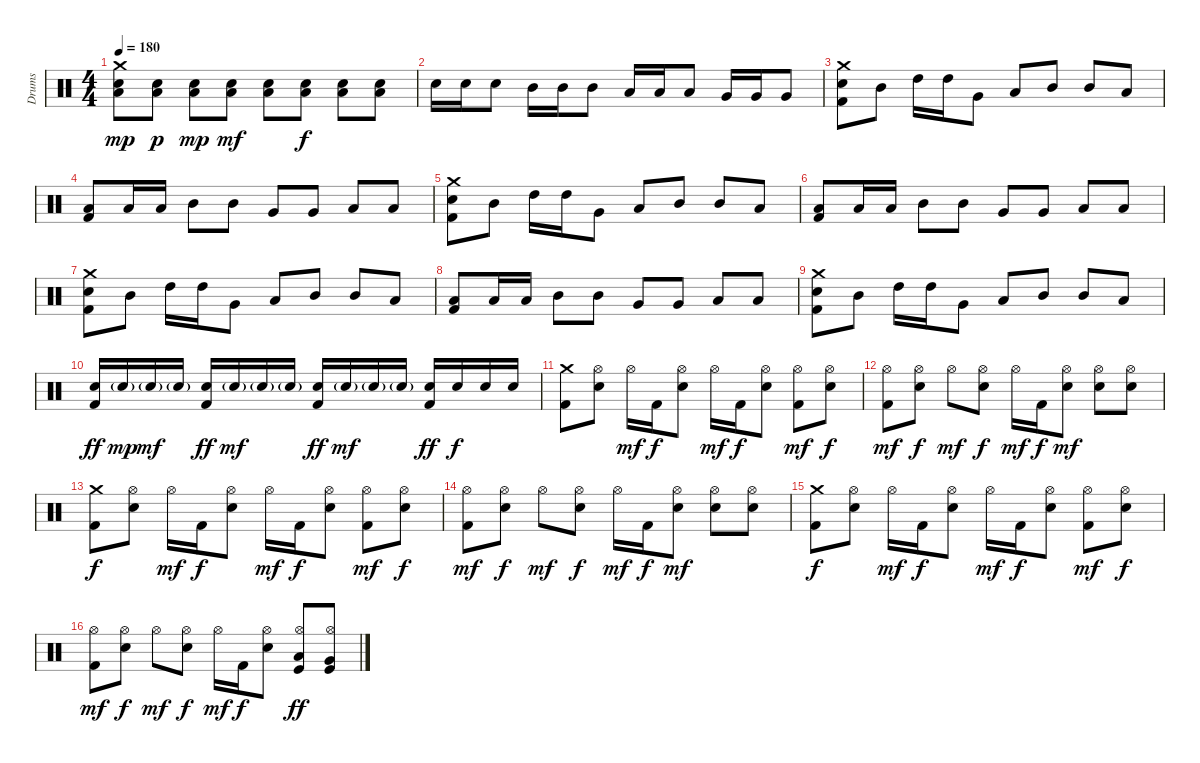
\track ("Drums" "Drums") {instrument percussion}
\staff {score}
\articulation defaults
\ts (4 4)
\tempo 180
\clef neutral
\ks c
("Crash medium (hit)" "Low Floor Tom (hit)" "Electric Snare (hit)").8{dy mp} ("Low Floor Tom (hit)" "Electric Snare (hit)").8{dy p} ("Low Floor Tom (hit)" "Electric Snare (hit)").8{dy mp} ("Low Floor Tom (hit)" "Electric Snare (hit)").8{dy mf} ("Low Floor Tom (hit)" "Electric Snare (hit)").8 ("Low Floor Tom (hit)" "Electric Snare (hit)").8{dy f} ("Low Floor Tom (hit)" "Electric Snare (hit)").8 ("Low Floor Tom (hit)" "Electric Snare (hit)").8 |
"Electric Snare (hit)".16 "Electric Snare (hit)".16 "Electric Snare (hit)".8 "Mid Tom (hit)".16 "Mid Tom (hit)".16 "Mid Tom (hit)".8 "Low Tom (hit)".16 "Low Tom (hit)".16 "Low Tom (hit)".8 "Very Low Tom (hit)".16 "Very Low Tom (hit)".16 "Very Low Tom (hit)".8 |
("Crash medium (hit)" "Electric Snare (hit)" "Kick (hit) 2").8 "Mid Tom (hit)".8 "High Tom (hit)".16 "High Tom (hit)".16 "Very Low Tom (hit)".8 "Low Tom (hit)".8 "Mid Tom (hit)".8 "Mid Tom (hit)".8 "Low Tom (hit)".8 |
("Low Tom (hit)" "Kick (hit) 2").8 "Low Tom (hit)".16 "Low Tom (hit)".16 "Mid Tom (hit)".8 "Mid Tom (hit)".8 "Very Low Tom (hit)".8 "Very Low Tom (hit)".8 "Low Tom (hit)".8 "Low Tom (hit)".8 |
("Crash medium (hit)" "Electric Snare (hit)" "Kick (hit) 2").8 "Mid Tom (hit)".8 "High Tom (hit)".16 "High Tom (hit)".16 "Very Low Tom (hit)".8 "Low Tom (hit)".8 "Mid Tom (hit)".8 "Mid Tom (hit)".8 "Low Tom (hit)".8 |
("Low Tom (hit)" "Kick (hit) 2").8 "Low Tom (hit)".16 "Low Tom (hit)".16 "Mid Tom (hit)".8 "Mid Tom (hit)".8 "Very Low Tom (hit)".8 "Very Low Tom (hit)".8 "Low Tom (hit)".8 "Low Tom (hit)".8 |
("Crash medium (hit)" "Electric Snare (hit)" "Kick (hit) 2").8 "Mid Tom (hit)".8 "High Tom (hit)".16 "High Tom (hit)".16 "Very Low Tom (hit)".8 "Low Tom (hit)".8 "Mid Tom (hit)".8 "Mid Tom (hit)".8 "Low Tom (hit)".8 |
("Low Tom (hit)" "Kick (hit) 2").8 "Low Tom (hit)".16 "Low Tom (hit)".16 "Mid Tom (hit)".8 "Mid Tom (hit)".8 "Very Low Tom (hit)".8 "Very Low Tom (hit)".8 "Low Tom (hit)".8 "Low Tom (hit)".8 |
("Crash medium (hit)" "Electric Snare (hit)" "Kick (hit) 2").8 "Mid Tom (hit)".8 "High Tom (hit)".16 "High Tom (hit)".16 "Very Low Tom (hit)".8 "Low Tom (hit)".8 "Mid Tom (hit)".8 "Mid Tom (hit)".8 "Low Tom (hit)".8 |
("Electric Snare (hit)" "Kick (hit) 2").16{dy ff} "Electric Snare (hit)"{g}.16{dy mp} "Electric Snare (hit)"{g}.16{dy mf} "Electric Snare (hit)"{g}.16 ("Electric Snare (hit)" "Kick (hit) 2").16{dy ff} "Electric Snare (hit)"{g}.16{dy mf} "Electric Snare (hit)"{g}.16 "Electric Snare (hit)"{g}.16 ("Electric Snare (hit)" "Kick (hit) 2").16{dy ff} "Electric Snare (hit)"{g}.16{dy mf} "Electric Snare (hit)"{g}.16 "Electric Snare (hit)"{g}.16 ("Electric Snare (hit)" "Kick (hit) 2").16{dy ff} "Electric Snare (hit)".16{dy f} "Electric Snare (hit)".16 "Electric Snare (hit)".16 |
("Crash medium (hit)" "Kick (hit) 2").8 ("Hi-Hat (open)" "Electric Snare (hit)").8 "Hi-Hat (open)".16{dy mf} "Kick (hit) 2".16{dy f} ("Hi-Hat (open)" "Electric Snare (hit)").8 "Hi-Hat (open)".16{dy mf} "Kick (hit) 2".16{dy f} ("Hi-Hat (open)" "Electric Snare (hit)").8 ("Hi-Hat (open)" "Kick (hit) 2").8{dy mf} ("Hi-Hat (open)" "Electric Snare (hit)").8{dy f} |
("Hi-Hat (open)" "Kick (hit) 2").8{dy mf} ("Hi-Hat (open)" "Electric Snare (hit)").8{dy f} "Hi-Hat (open)".8{dy mf} ("Hi-Hat (open)" "Electric Snare (hit)").8{dy f} "Hi-Hat (open)".16{dy mf} "Kick (hit) 2".16{dy f} ("Hi-Hat (open)" "Electric Snare (hit)").8{dy mf} ("Hi-Hat (open)" "Electric Snare (hit)").8 ("Hi-Hat (open)" "Electric Snare (hit)").8 |
("Crash medium (hit)" "Kick (hit) 2").8{dy f} ("Hi-Hat (open)" "Electric Snare (hit)").8 "Hi-Hat (open)".16{dy mf} "Kick (hit) 2".16{dy f} ("Hi-Hat (open)" "Electric Snare (hit)").8 "Hi-Hat (open)".16{dy mf} "Kick (hit) 2".16{dy f} ("Hi-Hat (open)" "Electric Snare (hit)").8 ("Hi-Hat (open)" "Kick (hit) 2").8{dy mf} ("Hi-Hat (open)" "Electric Snare (hit)").8{dy f} |
("Hi-Hat (open)" "Kick (hit) 2").8{dy mf} ("Hi-Hat (open)" "Electric Snare (hit)").8{dy f} "Hi-Hat (open)".8{dy mf} ("Hi-Hat (open)" "Electric Snare (hit)").8{dy f} "Hi-Hat (open)".16{dy mf} "Kick (hit) 2".16{dy f} ("Hi-Hat (open)" "Electric Snare (hit)").8{dy mf} ("Hi-Hat (open)" "Electric Snare (hit)").8 ("Hi-Hat (open)" "Electric Snare (hit)").8 |
("Crash medium (hit)" "Kick (hit) 2").8{dy f} ("Hi-Hat (open)" "Electric Snare (hit)").8 "Hi-Hat (open)".16{dy mf} "Kick (hit) 2".16{dy f} ("Hi-Hat (open)" "Electric Snare (hit)").8 "Hi-Hat (open)".16{dy mf} "Kick (hit) 2".16{dy f} ("Hi-Hat (open)" "Electric Snare (hit)").8 ("Hi-Hat (open)" "Kick (hit) 2").8{dy mf} ("Hi-Hat (open)" "Electric Snare (hit)").8{dy f} |
("Hi-Hat (open)" "Kick (hit) 2").8{dy mf} ("Hi-Hat (open)" "Electric Snare (hit)").8{dy f} "Hi-Hat (open)".8{dy mf} ("Hi-Hat (open)" "Electric Snare (hit)").8{dy f} "Hi-Hat (open)".16{dy mf} "Kick (hit) 2".16{dy f} ("Hi-Hat (open)" "Electric Snare (hit)").8 ("Hi-Hat (open)" "Low Tom (hit)" "Kick (hit)").8{dy ff} ("Hi-Hat (open)" "Very Low Tom (hit)" "Kick (hit)").8
